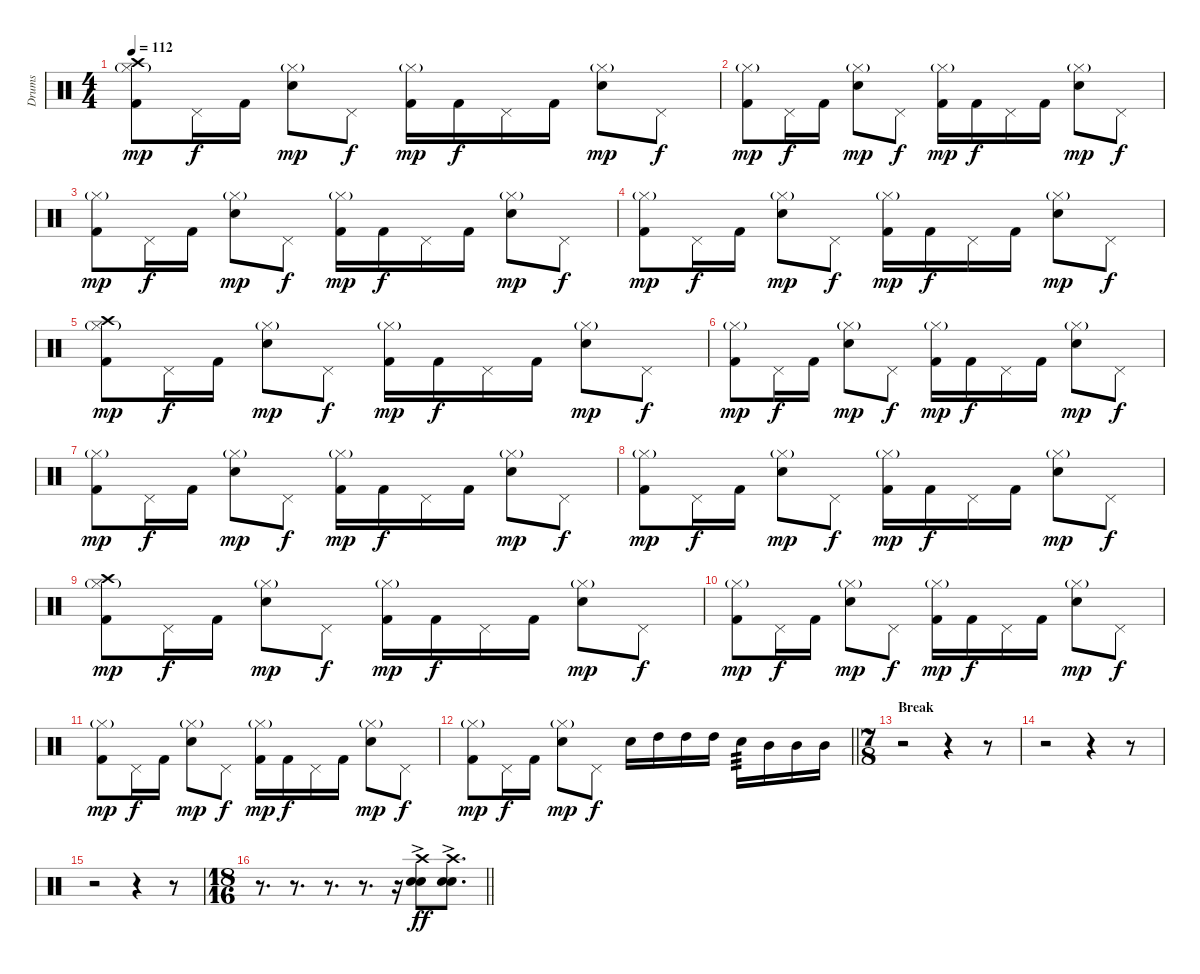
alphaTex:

\track ("Drums" "Drums") {instrument percussion}
\staff {score}
\articulation defaults
\ts (4 4)
\tempo 112
\clef neutral
\ks c
("Hi-Hat (closed)"{g} "Crash high (hit)" "Kick (hit) 2").8{dy mp} "Pedal Hi-Hat (hit)".16{dy f} "Kick (hit) 2".16 ("Hi-Hat (closed)"{g} "Snare (hit) 2").8{dy mp} "Pedal Hi-Hat (hit)".8{dy f} ("Hi-Hat (closed)"{g} "Kick (hit) 2").16{dy mp} "Kick (hit) 2".16{dy f} "Pedal Hi-Hat (hit)".16 "Kick (hit) 2".16 ("Hi-Hat (closed)"{g} "Snare (hit) 2").8{dy mp} "Pedal Hi-Hat (hit)".8{dy f} |
("Hi-Hat (closed)"{g} "Kick (hit) 2").8{dy mp} "Pedal Hi-Hat (hit)".16{dy f} "Kick (hit) 2".16 ("Hi-Hat (closed)"{g} "Snare (hit) 2").8{dy mp} "Pedal Hi-Hat (hit)".8{dy f} ("Hi-Hat (closed)"{g} "Kick (hit) 2").16{dy mp} "Kick (hit) 2".16{dy f} "Pedal Hi-Hat (hit)".16 "Kick (hit) 2".16 ("Hi-Hat (closed)"{g} "Snare (hit) 2").8{dy mp} "Pedal Hi-Hat (hit)".8{dy f} |
("Hi-Hat (closed)"{g} "Kick (hit) 2").8{dy mp} "Pedal Hi-Hat (hit)".16{dy f} "Kick (hit) 2".16 ("Hi-Hat (closed)"{g} "Snare (hit) 2").8{dy mp} "Pedal Hi-Hat (hit)".8{dy f} ("Hi-Hat (closed)"{g} "Kick (hit) 2").16{dy mp} "Kick (hit) 2".16{dy f} "Pedal Hi-Hat (hit)".16 "Kick (hit) 2".16 ("Hi-Hat (closed)"{g} "Snare (hit) 2").8{dy mp} "Pedal Hi-Hat (hit)".8{dy f} |
("Hi-Hat (closed)"{g} "Kick (hit) 2").8{dy mp} "Pedal Hi-Hat (hit)".16{dy f} "Kick (hit) 2".16 ("Hi-Hat (closed)"{g} "Snare (hit) 2").8{dy mp} "Pedal Hi-Hat (hit)".8{dy f} ("Hi-Hat (closed)"{g} "Kick (hit) 2").16{dy mp} "Kick (hit) 2".16{dy f} "Pedal Hi-Hat (hit)".16 "Kick (hit) 2".16 ("Hi-Hat (closed)"{g} "Snare (hit) 2").8{dy mp} "Pedal Hi-Hat (hit)".8{dy f} |
("Hi-Hat (closed)"{g} "Crash high (hit)" "Kick (hit) 2").8{dy mp} "Pedal Hi-Hat (hit)".16{dy f} "Kick (hit) 2".16 ("Hi-Hat (closed)"{g} "Snare (hit) 2").8{dy mp} "Pedal Hi-Hat (hit)".8{dy f} ("Hi-Hat (closed)"{g} "Kick (hit) 2").16{dy mp} "Kick (hit) 2".16{dy f} "Pedal Hi-Hat (hit)".16 "Kick (hit) 2".16 ("Hi-Hat (closed)"{g} "Snare (hit) 2").8{dy mp} "Pedal Hi-Hat (hit)".8{dy f} |
("Hi-Hat (closed)"{g} "Kick (hit) 2").8{dy mp} "Pedal Hi-Hat (hit)".16{dy f} "Kick (hit) 2".16 ("Hi-Hat (closed)"{g} "Snare (hit) 2").8{dy mp} "Pedal Hi-Hat (hit)".8{dy f} ("Hi-Hat (closed)"{g} "Kick (hit) 2").16{dy mp} "Kick (hit) 2".16{dy f} "Pedal Hi-Hat (hit)".16 "Kick (hit) 2".16 ("Hi-Hat (closed)"{g} "Snare (hit) 2").8{dy mp} "Pedal Hi-Hat (hit)".8{dy f} |
("Hi-Hat (closed)"{g} "Kick (hit) 2").8{dy mp} "Pedal Hi-Hat (hit)".16{dy f} "Kick (hit) 2".16 ("Hi-Hat (closed)"{g} "Snare (hit) 2").8{dy mp} "Pedal Hi-Hat (hit)".8{dy f} ("Hi-Hat (closed)"{g} "Kick (hit) 2").16{dy mp} "Kick (hit) 2".16{dy f} "Pedal Hi-Hat (hit)".16 "Kick (hit) 2".16 ("Hi-Hat (closed)"{g} "Snare (hit) 2").8{dy mp} "Pedal Hi-Hat (hit)".8{dy f} |
("Hi-Hat (closed)"{g} "Kick (hit) 2").8{dy mp} "Pedal Hi-Hat (hit)".16{dy f} "Kick (hit) 2".16 ("Hi-Hat (closed)"{g} "Snare (hit) 2").8{dy mp} "Pedal Hi-Hat (hit)".8{dy f} ("Hi-Hat (closed)"{g} "Kick (hit) 2").16{dy mp} "Kick (hit) 2".16{dy f} "Pedal Hi-Hat (hit)".16 "Kick (hit) 2".16 ("Hi-Hat (closed)"{g} "Snare (hit) 2").8{dy mp} "Pedal Hi-Hat (hit)".8{dy f} |
("Hi-Hat (closed)"{g} "Crash high (hit)" "Kick (hit) 2").8{dy mp} "Pedal Hi-Hat (hit)".16{dy f} "Kick (hit) 2".16 ("Hi-Hat (closed)"{g} "Snare (hit) 2").8{dy mp} "Pedal Hi-Hat (hit)".8{dy f} ("Hi-Hat (closed)"{g} "Kick (hit) 2").16{dy mp} "Kick (hit) 2".16{dy f} "Pedal Hi-Hat (hit)".16 "Kick (hit) 2".16 ("Hi-Hat (closed)"{g} "Snare (hit) 2").8{dy mp} "Pedal Hi-Hat (hit)".8{dy f} |
("Hi-Hat (closed)"{g} "Kick (hit) 2").8{dy mp} "Pedal Hi-Hat (hit)".16{dy f} "Kick (hit) 2".16 ("Hi-Hat (closed)"{g} "Snare (hit) 2").8{dy mp} "Pedal Hi-Hat (hit)".8{dy f} ("Hi-Hat (closed)"{g} "Kick (hit) 2").16{dy mp} "Kick (hit) 2".16{dy f} "Pedal Hi-Hat (hit)".16 "Kick (hit) 2".16 ("Hi-Hat (closed)"{g} "Snare (hit) 2").8{dy mp} "Pedal Hi-Hat (hit)".8{dy f} |
("Hi-Hat (closed)"{g} "Kick (hit) 2").8{dy mp} "Pedal Hi-Hat (hit)".16{dy f} "Kick (hit) 2".16 ("Hi-Hat (closed)"{g} "Snare (hit) 2").8{dy mp} "Pedal Hi-Hat (hit)".8{dy f} ("Hi-Hat (closed)"{g} "Kick (hit) 2").16{dy mp} "Kick (hit) 2".16{dy f} "Pedal Hi-Hat (hit)".16 "Kick (hit) 2".16 ("Hi-Hat (closed)"{g} "Snare (hit) 2").8{dy mp} "Pedal Hi-Hat (hit)".8{dy f} |
\barLineRight lightlight
("Hi-Hat (closed)"{g} "Kick (hit) 2").8{dy mp} "Pedal Hi-Hat (hit)".16{dy f} "Kick (hit) 2".16 ("Hi-Hat (closed)"{g} "Snare (hit) 2").8{dy mp} "Pedal Hi-Hat (hit)".8{dy f} "Snare (hit) 2".16 "High Tom (hit)".16 "High Tom (hit)".16 "High Tom (hit)".16 "Snare (hit) 2".16{tp 3} "Mid Tom (hit)".16 "Mid Tom (hit)".16 "Mid Tom (hit)".16 |
\ts (7 8)
\section ("" "Break")
r.2 r.4 r.8 |
r.2 r.4 r.8 |
r.2 r.4 r.8 |
\ts (18 16)
\barLineRight lightlight
r.8{d} r.8{d} r.8{d} r.8{d} r.16 ("Crash high (hit)" "Electric Snare (hit)"{ac} "Electric Snare (hit)"{ac}).8{dy ff} ("Crash high (hit)" "Electric Snare (hit)"{ac} "Electric Snare (hit)"{ac}).8{d}
